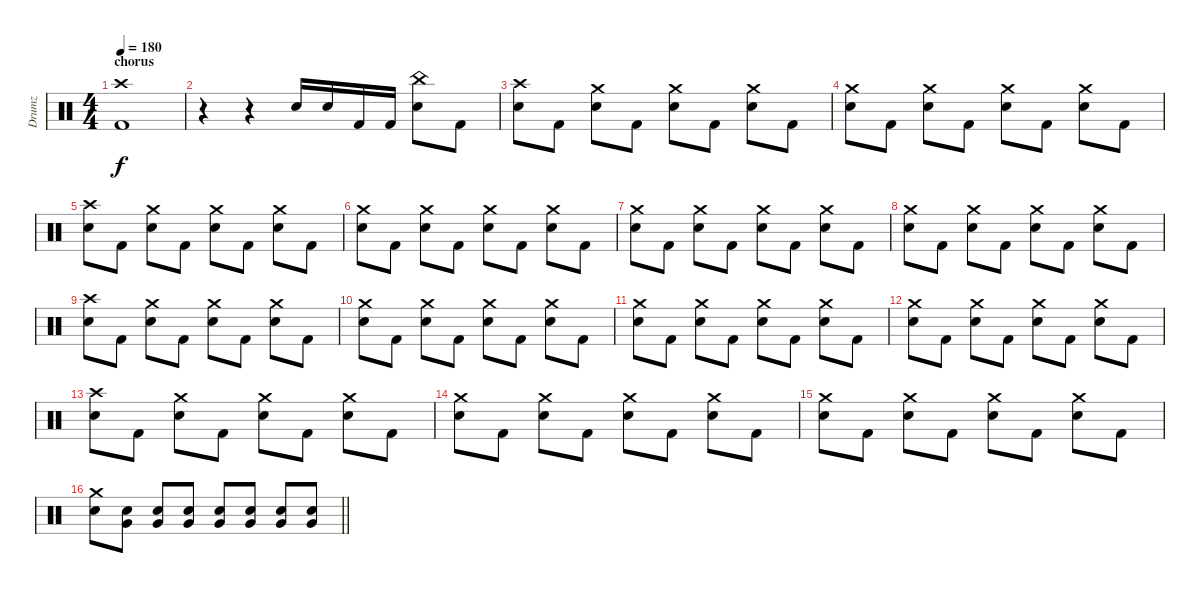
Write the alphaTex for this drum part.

\track ("Drumz" "Drumz") {instrument percussion}
\staff {score}
\articulation defaults
\ts (4 4)
\section ("" "chorus")
\tempo 180
\clef neutral
\ks c
("Crash high (hit)" "Kick (hit) 2").1{dy f} |
r.4 r.4 "Electric Snare (hit)".16 "Electric Snare (hit)".16 "Kick (hit) 2".16 "Kick (hit) 2".16 ("China (hit)" "Electric Snare (hit)").8 "Kick (hit) 2".8 |
("Crash high (hit)" "Electric Snare (hit)").8 "Kick (hit) 2".8 ("Crash medium (hit)" "Electric Snare (hit)").8 "Kick (hit) 2".8 ("Crash medium (hit)" "Electric Snare (hit)").8 "Kick (hit) 2".8 ("Crash medium (hit)" "Electric Snare (hit)").8 "Kick (hit) 2".8 |
("Crash medium (hit)" "Electric Snare (hit)").8 "Kick (hit) 2".8 ("Crash medium (hit)" "Electric Snare (hit)").8 "Kick (hit) 2".8 ("Crash medium (hit)" "Electric Snare (hit)").8 "Kick (hit) 2".8 ("Crash medium (hit)" "Electric Snare (hit)").8 "Kick (hit) 2".8 |
("Crash high (hit)" "Electric Snare (hit)").8 "Kick (hit) 2".8 ("Crash medium (hit)" "Electric Snare (hit)").8 "Kick (hit) 2".8 ("Crash medium (hit)" "Electric Snare (hit)").8 "Kick (hit) 2".8 ("Crash medium (hit)" "Electric Snare (hit)").8 "Kick (hit) 2".8 |
("Crash medium (hit)" "Electric Snare (hit)").8 "Kick (hit) 2".8 ("Crash medium (hit)" "Electric Snare (hit)").8 "Kick (hit) 2".8 ("Crash medium (hit)" "Electric Snare (hit)").8 "Kick (hit) 2".8 ("Crash medium (hit)" "Electric Snare (hit)").8 "Kick (hit) 2".8 |
("Crash medium (hit)" "Electric Snare (hit)").8 "Kick (hit) 2".8 ("Crash medium (hit)" "Electric Snare (hit)").8 "Kick (hit) 2".8 ("Crash medium (hit)" "Electric Snare (hit)").8 "Kick (hit) 2".8 ("Crash medium (hit)" "Electric Snare (hit)").8 "Kick (hit) 2".8 |
("Crash medium (hit)" "Electric Snare (hit)").8 "Kick (hit) 2".8 ("Crash medium (hit)" "Electric Snare (hit)").8 "Kick (hit) 2".8 ("Crash medium (hit)" "Electric Snare (hit)").8 "Kick (hit) 2".8 ("Crash medium (hit)" "Electric Snare (hit)").8 "Kick (hit) 2".8 |
("Crash high (hit)" "Electric Snare (hit)").8 "Kick (hit) 2".8 ("Crash medium (hit)" "Electric Snare (hit)").8 "Kick (hit) 2".8 ("Crash medium (hit)" "Electric Snare (hit)").8 "Kick (hit) 2".8 ("Crash medium (hit)" "Electric Snare (hit)").8 "Kick (hit) 2".8 |
("Crash medium (hit)" "Electric Snare (hit)").8 "Kick (hit) 2".8 ("Crash medium (hit)" "Electric Snare (hit)").8 "Kick (hit) 2".8 ("Crash medium (hit)" "Electric Snare (hit)").8 "Kick (hit) 2".8 ("Crash medium (hit)" "Electric Snare (hit)").8 "Kick (hit) 2".8 |
("Crash medium (hit)" "Electric Snare (hit)").8 "Kick (hit) 2".8 ("Crash medium (hit)" "Electric Snare (hit)").8 "Kick (hit) 2".8 ("Crash medium (hit)" "Electric Snare (hit)").8 "Kick (hit) 2".8 ("Crash medium (hit)" "Electric Snare (hit)").8 "Kick (hit) 2".8 |
("Crash medium (hit)" "Electric Snare (hit)").8 "Kick (hit) 2".8 ("Crash medium (hit)" "Electric Snare (hit)").8 "Kick (hit) 2".8 ("Crash medium (hit)" "Electric Snare (hit)").8 "Kick (hit) 2".8 ("Crash medium (hit)" "Electric Snare (hit)").8 "Kick (hit) 2".8 |
("Crash high (hit)" "Electric Snare (hit)").8 "Kick (hit) 2".8 ("Crash medium (hit)" "Electric Snare (hit)").8 "Kick (hit) 2".8 ("Crash medium (hit)" "Electric Snare (hit)").8 "Kick (hit) 2".8 ("Crash medium (hit)" "Electric Snare (hit)").8 "Kick (hit) 2".8 |
("Crash medium (hit)" "Electric Snare (hit)").8 "Kick (hit) 2".8 ("Crash medium (hit)" "Electric Snare (hit)").8 "Kick (hit) 2".8 ("Crash medium (hit)" "Electric Snare (hit)").8 "Kick (hit) 2".8 ("Crash medium (hit)" "Electric Snare (hit)").8 "Kick (hit) 2".8 |
("Crash medium (hit)" "Electric Snare (hit)").8 "Kick (hit) 2".8 ("Crash medium (hit)" "Electric Snare (hit)").8 "Kick (hit) 2".8 ("Crash medium (hit)" "Electric Snare (hit)").8 "Kick (hit) 2".8 ("Crash medium (hit)" "Electric Snare (hit)").8 "Kick (hit) 2".8 |
\barLineRight lightlight
("Crash medium (hit)" "Electric Snare (hit)").8 ("Very Low Tom (hit)" "Electric Snare (hit)").8 ("Very Low Tom (hit)" "Electric Snare (hit)").8 ("Very Low Tom (hit)" "Electric Snare (hit)").8 ("Very Low Tom (hit)" "Electric Snare (hit)").8 ("Very Low Tom (hit)" "Electric Snare (hit)").8 ("Very Low Tom (hit)" "Electric Snare (hit)").8 ("Very Low Tom (hit)" "Electric Snare (hit)").8
